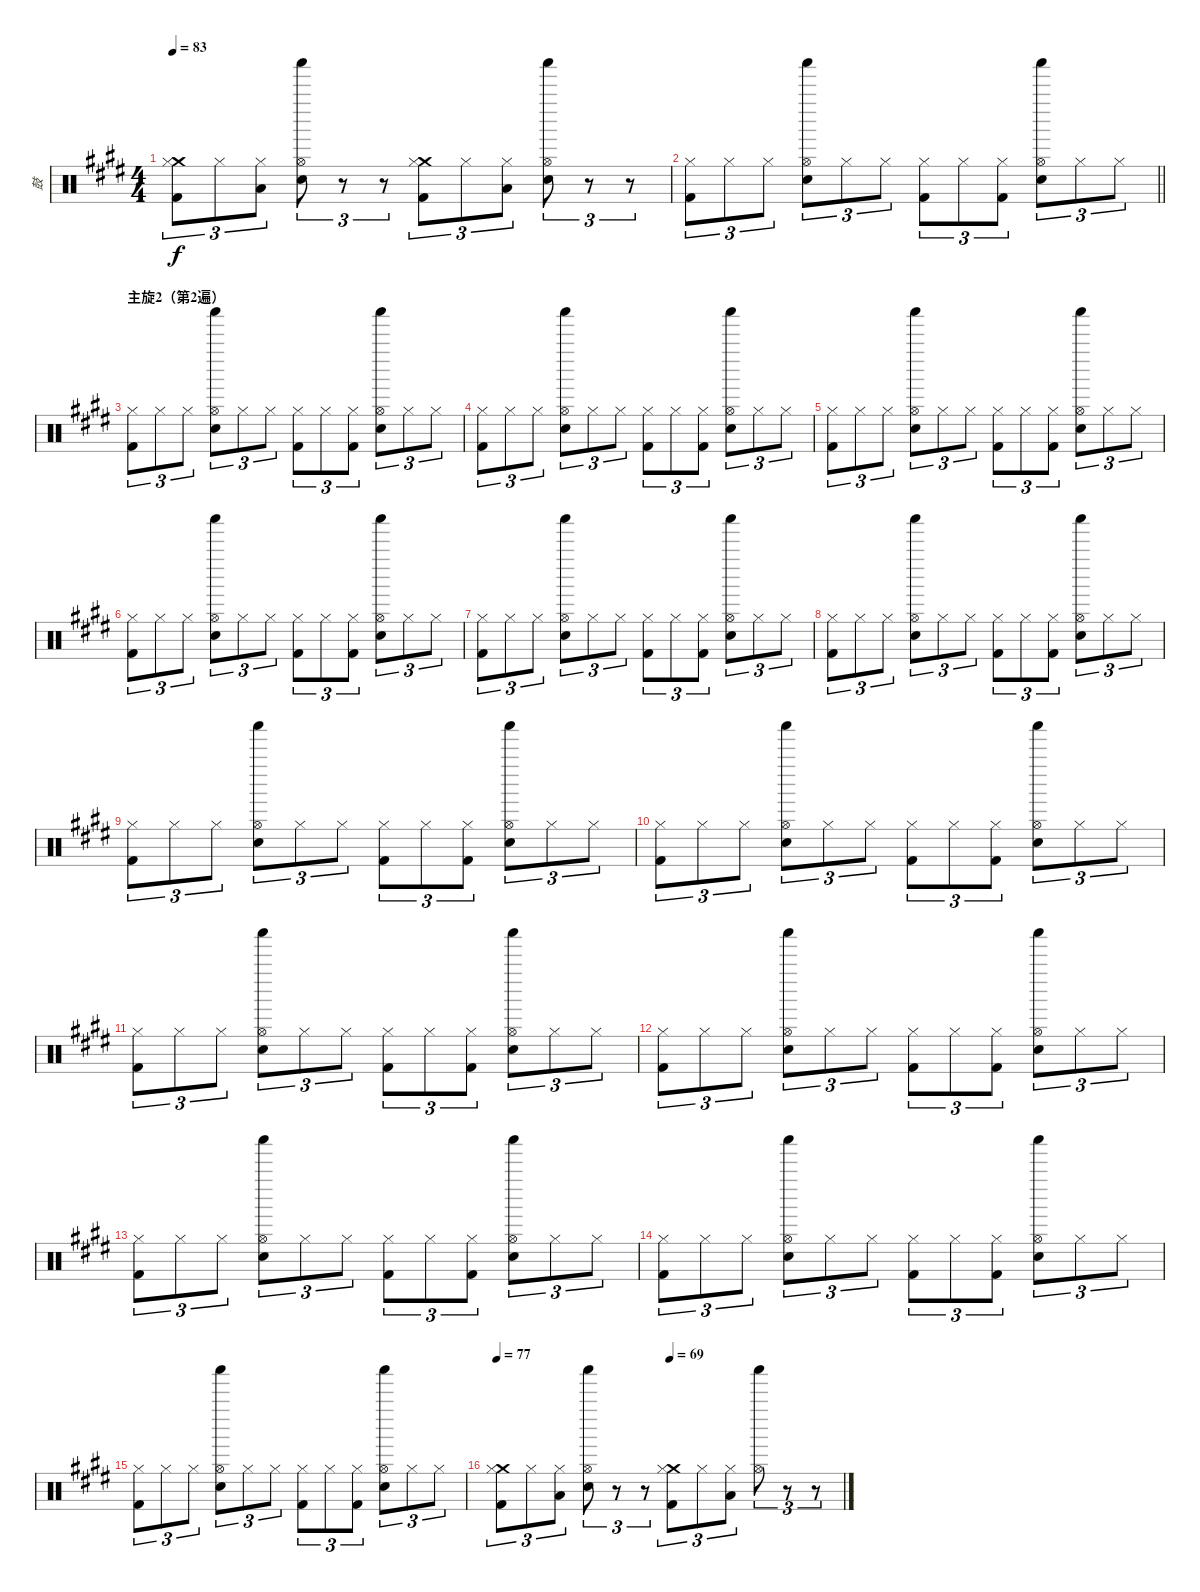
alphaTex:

\track ("鼓" "鼓") {instrument percussion}
\staff {score}
\articulation defaults
\ts (4 4)
\tempo 83
\clef neutral
\ks e
("Crash medium (hit)" "Kick (hit) 2" "Hi-Hat (closed)").8{tu (3 2) dy f} "Hi-Hat (closed)".8{tu (3 2)} ("Low Tom (hit)" "Hi-Hat (closed)").8{tu (3 2)} ("Electric Snare (hit)" "Shaker (hit)" "Hi-Hat (open)").8{tu (3 2)} r.8{tu (3 2)} r.8{tu (3 2)} ("Crash medium (hit)" "Kick (hit) 2" "Hi-Hat (closed)").8{tu (3 2)} "Hi-Hat (closed)".8{tu (3 2)} ("Low Tom (hit)" "Hi-Hat (closed)").8{tu (3 2)} ("Electric Snare (hit)" "Shaker (hit)" "Hi-Hat (open)").8{tu (3 2)} r.8{tu (3 2)} r.8{tu (3 2)} |
\barLineRight lightlight
("Kick (hit) 2" "Hi-Hat (closed)").8{tu (3 2)} "Hi-Hat (closed)".8{tu (3 2)} "Hi-Hat (closed)".8{tu (3 2)} ("Electric Snare (hit)" "Shaker (hit)" "Hi-Hat (open)").8{tu (3 2)} "Hi-Hat (closed)".8{tu (3 2)} "Hi-Hat (closed)".8{tu (3 2)} ("Kick (hit) 2" "Hi-Hat (closed)").8{tu (3 2)} "Hi-Hat (closed)".8{tu (3 2)} ("Kick (hit) 2" "Hi-Hat (closed)").8{tu (3 2)} ("Electric Snare (hit)" "Shaker (hit)" "Hi-Hat (open)").8{tu (3 2)} "Hi-Hat (closed)".8{tu (3 2)} "Hi-Hat (closed)".8{tu (3 2)} |
\section ("" "主旋2（第2遍）")
("Kick (hit) 2" "Hi-Hat (closed)").8{tu (3 2)} "Hi-Hat (closed)".8{tu (3 2)} "Hi-Hat (closed)".8{tu (3 2)} ("Electric Snare (hit)" "Shaker (hit)" "Hi-Hat (open)").8{tu (3 2)} "Hi-Hat (closed)".8{tu (3 2)} "Hi-Hat (closed)".8{tu (3 2)} ("Kick (hit) 2" "Hi-Hat (closed)").8{tu (3 2)} "Hi-Hat (closed)".8{tu (3 2)} ("Kick (hit) 2" "Hi-Hat (closed)").8{tu (3 2)} ("Electric Snare (hit)" "Shaker (hit)" "Hi-Hat (open)").8{tu (3 2)} "Hi-Hat (closed)".8{tu (3 2)} "Hi-Hat (closed)".8{tu (3 2)} |
("Kick (hit) 2" "Hi-Hat (closed)").8{tu (3 2)} "Hi-Hat (closed)".8{tu (3 2)} "Hi-Hat (closed)".8{tu (3 2)} ("Electric Snare (hit)" "Shaker (hit)" "Hi-Hat (open)").8{tu (3 2)} "Hi-Hat (closed)".8{tu (3 2)} "Hi-Hat (closed)".8{tu (3 2)} ("Kick (hit) 2" "Hi-Hat (closed)").8{tu (3 2)} "Hi-Hat (closed)".8{tu (3 2)} ("Kick (hit) 2" "Hi-Hat (closed)").8{tu (3 2)} ("Electric Snare (hit)" "Shaker (hit)" "Hi-Hat (open)").8{tu (3 2)} "Hi-Hat (closed)".8{tu (3 2)} "Hi-Hat (closed)".8{tu (3 2)} |
("Kick (hit) 2" "Hi-Hat (closed)").8{tu (3 2)} "Hi-Hat (closed)".8{tu (3 2)} "Hi-Hat (closed)".8{tu (3 2)} ("Electric Snare (hit)" "Shaker (hit)" "Hi-Hat (open)").8{tu (3 2)} "Hi-Hat (closed)".8{tu (3 2)} "Hi-Hat (closed)".8{tu (3 2)} ("Kick (hit) 2" "Hi-Hat (closed)").8{tu (3 2)} "Hi-Hat (closed)".8{tu (3 2)} ("Kick (hit) 2" "Hi-Hat (closed)").8{tu (3 2)} ("Electric Snare (hit)" "Shaker (hit)" "Hi-Hat (open)").8{tu (3 2)} "Hi-Hat (closed)".8{tu (3 2)} "Hi-Hat (closed)".8{tu (3 2)} |
("Kick (hit) 2" "Hi-Hat (closed)").8{tu (3 2)} "Hi-Hat (closed)".8{tu (3 2)} "Hi-Hat (closed)".8{tu (3 2)} ("Electric Snare (hit)" "Shaker (hit)" "Hi-Hat (open)").8{tu (3 2)} "Hi-Hat (closed)".8{tu (3 2)} "Hi-Hat (closed)".8{tu (3 2)} ("Kick (hit) 2" "Hi-Hat (closed)").8{tu (3 2)} "Hi-Hat (closed)".8{tu (3 2)} ("Kick (hit) 2" "Hi-Hat (closed)").8{tu (3 2)} ("Electric Snare (hit)" "Shaker (hit)" "Hi-Hat (open)").8{tu (3 2)} "Hi-Hat (closed)".8{tu (3 2)} "Hi-Hat (closed)".8{tu (3 2)} |
("Kick (hit) 2" "Hi-Hat (closed)").8{tu (3 2)} "Hi-Hat (closed)".8{tu (3 2)} "Hi-Hat (closed)".8{tu (3 2)} ("Electric Snare (hit)" "Shaker (hit)" "Hi-Hat (open)").8{tu (3 2)} "Hi-Hat (closed)".8{tu (3 2)} "Hi-Hat (closed)".8{tu (3 2)} ("Kick (hit) 2" "Hi-Hat (closed)").8{tu (3 2)} "Hi-Hat (closed)".8{tu (3 2)} ("Kick (hit) 2" "Hi-Hat (closed)").8{tu (3 2)} ("Electric Snare (hit)" "Shaker (hit)" "Hi-Hat (open)").8{tu (3 2)} "Hi-Hat (closed)".8{tu (3 2)} "Hi-Hat (closed)".8{tu (3 2)} |
("Kick (hit) 2" "Hi-Hat (closed)").8{tu (3 2)} "Hi-Hat (closed)".8{tu (3 2)} "Hi-Hat (closed)".8{tu (3 2)} ("Electric Snare (hit)" "Shaker (hit)" "Hi-Hat (open)").8{tu (3 2)} "Hi-Hat (closed)".8{tu (3 2)} "Hi-Hat (closed)".8{tu (3 2)} ("Kick (hit) 2" "Hi-Hat (closed)").8{tu (3 2)} "Hi-Hat (closed)".8{tu (3 2)} ("Kick (hit) 2" "Hi-Hat (closed)").8{tu (3 2)} ("Electric Snare (hit)" "Shaker (hit)" "Hi-Hat (open)").8{tu (3 2)} "Hi-Hat (closed)".8{tu (3 2)} "Hi-Hat (closed)".8{tu (3 2)} |
("Kick (hit) 2" "Hi-Hat (closed)").8{tu (3 2)} "Hi-Hat (closed)".8{tu (3 2)} "Hi-Hat (closed)".8{tu (3 2)} ("Electric Snare (hit)" "Shaker (hit)" "Hi-Hat (open)").8{tu (3 2)} "Hi-Hat (closed)".8{tu (3 2)} "Hi-Hat (closed)".8{tu (3 2)} ("Kick (hit) 2" "Hi-Hat (closed)").8{tu (3 2)} "Hi-Hat (closed)".8{tu (3 2)} ("Kick (hit) 2" "Hi-Hat (closed)").8{tu (3 2)} ("Electric Snare (hit)" "Shaker (hit)" "Hi-Hat (open)").8{tu (3 2)} "Hi-Hat (closed)".8{tu (3 2)} "Hi-Hat (closed)".8{tu (3 2)} |
("Kick (hit) 2" "Hi-Hat (closed)").8{tu (3 2)} "Hi-Hat (closed)".8{tu (3 2)} "Hi-Hat (closed)".8{tu (3 2)} ("Electric Snare (hit)" "Shaker (hit)" "Hi-Hat (open)").8{tu (3 2)} "Hi-Hat (closed)".8{tu (3 2)} "Hi-Hat (closed)".8{tu (3 2)} ("Kick (hit) 2" "Hi-Hat (closed)").8{tu (3 2)} "Hi-Hat (closed)".8{tu (3 2)} ("Kick (hit) 2" "Hi-Hat (closed)").8{tu (3 2)} ("Electric Snare (hit)" "Shaker (hit)" "Hi-Hat (open)").8{tu (3 2)} "Hi-Hat (closed)".8{tu (3 2)} "Hi-Hat (closed)".8{tu (3 2)} |
("Kick (hit) 2" "Hi-Hat (closed)").8{tu (3 2)} "Hi-Hat (closed)".8{tu (3 2)} "Hi-Hat (closed)".8{tu (3 2)} ("Electric Snare (hit)" "Shaker (hit)" "Hi-Hat (open)").8{tu (3 2)} "Hi-Hat (closed)".8{tu (3 2)} "Hi-Hat (closed)".8{tu (3 2)} ("Kick (hit) 2" "Hi-Hat (closed)").8{tu (3 2)} "Hi-Hat (closed)".8{tu (3 2)} ("Kick (hit) 2" "Hi-Hat (closed)").8{tu (3 2)} ("Electric Snare (hit)" "Shaker (hit)" "Hi-Hat (open)").8{tu (3 2)} "Hi-Hat (closed)".8{tu (3 2)} "Hi-Hat (closed)".8{tu (3 2)} |
("Kick (hit) 2" "Hi-Hat (closed)").8{tu (3 2)} "Hi-Hat (closed)".8{tu (3 2)} "Hi-Hat (closed)".8{tu (3 2)} ("Electric Snare (hit)" "Shaker (hit)" "Hi-Hat (open)").8{tu (3 2)} "Hi-Hat (closed)".8{tu (3 2)} "Hi-Hat (closed)".8{tu (3 2)} ("Kick (hit) 2" "Hi-Hat (closed)").8{tu (3 2)} "Hi-Hat (closed)".8{tu (3 2)} ("Kick (hit) 2" "Hi-Hat (closed)").8{tu (3 2)} ("Electric Snare (hit)" "Shaker (hit)" "Hi-Hat (open)").8{tu (3 2)} "Hi-Hat (closed)".8{tu (3 2)} "Hi-Hat (closed)".8{tu (3 2)} |
("Kick (hit) 2" "Hi-Hat (closed)").8{tu (3 2)} "Hi-Hat (closed)".8{tu (3 2)} "Hi-Hat (closed)".8{tu (3 2)} ("Electric Snare (hit)" "Shaker (hit)" "Hi-Hat (open)").8{tu (3 2)} "Hi-Hat (closed)".8{tu (3 2)} "Hi-Hat (closed)".8{tu (3 2)} ("Kick (hit) 2" "Hi-Hat (closed)").8{tu (3 2)} "Hi-Hat (closed)".8{tu (3 2)} ("Kick (hit) 2" "Hi-Hat (closed)").8{tu (3 2)} ("Electric Snare (hit)" "Shaker (hit)" "Hi-Hat (open)").8{tu (3 2)} "Hi-Hat (closed)".8{tu (3 2)} "Hi-Hat (closed)".8{tu (3 2)} |
("Kick (hit) 2" "Hi-Hat (closed)").8{tu (3 2)} "Hi-Hat (closed)".8{tu (3 2)} "Hi-Hat (closed)".8{tu (3 2)} ("Electric Snare (hit)" "Shaker (hit)" "Hi-Hat (open)").8{tu (3 2)} "Hi-Hat (closed)".8{tu (3 2)} "Hi-Hat (closed)".8{tu (3 2)} ("Kick (hit) 2" "Hi-Hat (closed)").8{tu (3 2)} "Hi-Hat (closed)".8{tu (3 2)} ("Kick (hit) 2" "Hi-Hat (closed)").8{tu (3 2)} ("Electric Snare (hit)" "Shaker (hit)" "Hi-Hat (open)").8{tu (3 2)} "Hi-Hat (closed)".8{tu (3 2)} "Hi-Hat (closed)".8{tu (3 2)} |
("Kick (hit) 2" "Hi-Hat (closed)").8{tu (3 2)} "Hi-Hat (closed)".8{tu (3 2)} "Hi-Hat (closed)".8{tu (3 2)} ("Electric Snare (hit)" "Shaker (hit)" "Hi-Hat (open)").8{tu (3 2)} "Hi-Hat (closed)".8{tu (3 2)} "Hi-Hat (closed)".8{tu (3 2)} ("Kick (hit) 2" "Hi-Hat (closed)").8{tu (3 2)} "Hi-Hat (closed)".8{tu (3 2)} ("Kick (hit) 2" "Hi-Hat (closed)").8{tu (3 2)} ("Electric Snare (hit)" "Shaker (hit)" "Hi-Hat (open)").8{tu (3 2)} "Hi-Hat (closed)".8{tu (3 2)} "Hi-Hat (closed)".8{tu (3 2)} |
\tempo 77
\tempo (69 0.5)
("Crash medium (hit)" "Kick (hit) 2" "Hi-Hat (closed)").8{tu (3 2)} "Hi-Hat (closed)".8{tu (3 2)} ("Low Tom (hit)" "Hi-Hat (closed)").8{tu (3 2)} ("Electric Snare (hit)" "Shaker (hit)" "Hi-Hat (open)").8{tu (3 2)} r.8{tu (3 2)} r.8{tu (3 2)} ("Crash medium (hit)" "Kick (hit) 2" "Hi-Hat (closed)").8{tu (3 2)} "Hi-Hat (closed)".8{tu (3 2)} ("Low Tom (hit)" "Hi-Hat (closed)").8{tu (3 2)} ("Shaker (hit)" "Hi-Hat (open)").8{tu (3 2)} r.8{tu (3 2)} r.8{tu (3 2)}
